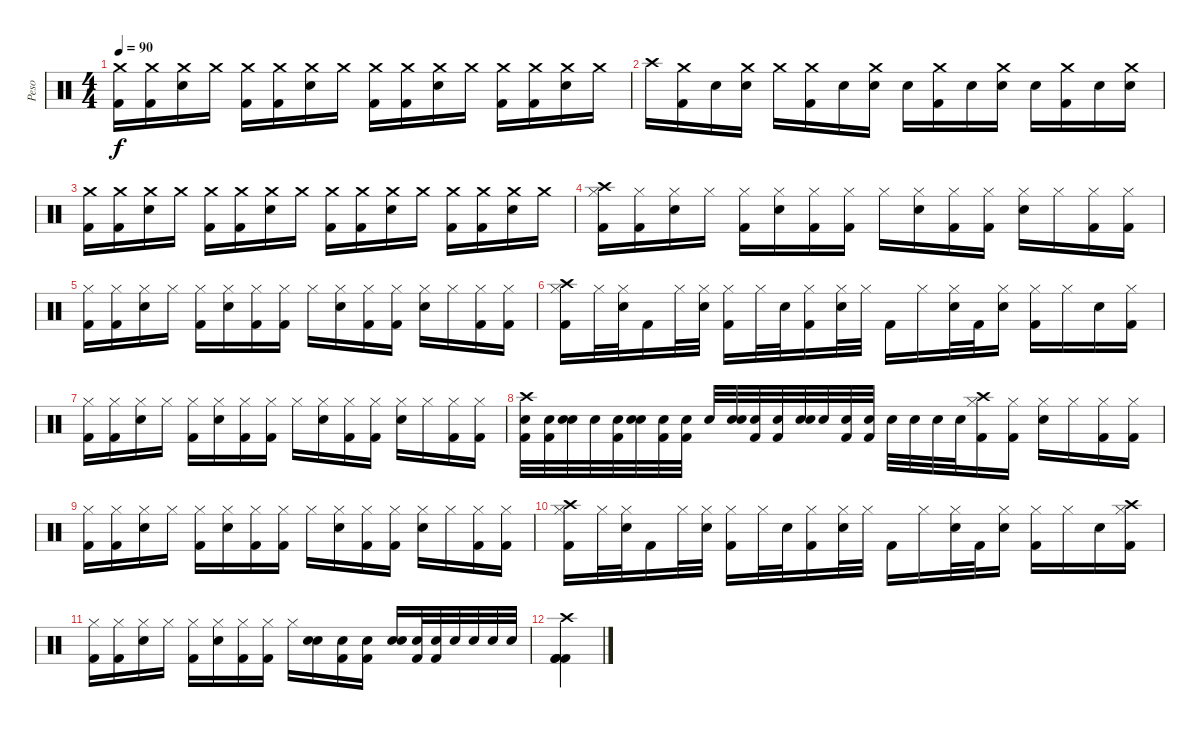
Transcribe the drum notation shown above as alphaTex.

\track ("Peso" "Peso") {instrument percussion}
\staff {score}
\articulation defaults
\ts (4 4)
\tempo 90
\clef neutral
\ks c
("Crash medium (hit)" "Kick (hit) 2").16{dy f} ("Crash medium (hit)" "Kick (hit) 2").16 ("Crash medium (hit)" "Snare (hit) 2").16 "Crash medium (hit)".16 ("Crash medium (hit)" "Kick (hit) 2").16 ("Crash medium (hit)" "Kick (hit) 2").16 ("Crash medium (hit)" "Snare (hit) 2").16 "Crash medium (hit)".16 ("Crash medium (hit)" "Kick (hit) 2").16 ("Crash medium (hit)" "Kick (hit) 2").16 ("Crash medium (hit)" "Snare (hit) 2").16 "Crash medium (hit)".16 ("Crash medium (hit)" "Kick (hit) 2").16 ("Crash medium (hit)" "Kick (hit) 2").16 ("Crash medium (hit)" "Snare (hit) 2").16 "Crash medium (hit)".16 |
"Crash high (hit)".16 ("Crash medium (hit)" "Kick (hit) 2").16 "Snare (hit)"{x}.16 ("Crash medium (hit)" "Snare (hit) 2").16 "Crash medium (hit)"{x}.16 ("Crash medium (hit)" "Kick (hit) 2").16 "Snare (hit)"{x}.16 ("Crash medium (hit)" "Snare (hit) 2").16 "Snare (hit)"{x}.16 ("Crash medium (hit)" "Kick (hit) 2").16 "Snare (hit)"{x}.16 ("Crash medium (hit)" "Snare (hit) 2").16 "Snare (hit)"{x}.16 ("Crash medium (hit)" "Kick (hit) 2").16 "Snare (hit)"{x}.16 ("Crash medium (hit)" "Snare (hit) 2").16 |
("Crash medium (hit)" "Kick (hit) 2").16 ("Crash medium (hit)" "Kick (hit) 2").16 ("Crash medium (hit)" "Snare (hit) 2").16 "Crash medium (hit)".16 ("Crash medium (hit)" "Kick (hit) 2").16 ("Crash medium (hit)" "Kick (hit) 2").16 ("Crash medium (hit)" "Snare (hit) 2").16 "Crash medium (hit)".16 ("Crash medium (hit)" "Kick (hit) 2").16 ("Crash medium (hit)" "Kick (hit) 2").16 ("Crash medium (hit)" "Snare (hit) 2").16 "Crash medium (hit)".16 ("Crash medium (hit)" "Kick (hit) 2").16 ("Crash medium (hit)" "Kick (hit) 2").16 ("Crash medium (hit)" "Snare (hit) 2").16 "Crash medium (hit)".16 |
("Crash high (hit)" "Hi-Hat (closed)" "Kick (hit) 2").16 ("Hi-Hat (closed)" "Kick (hit) 2").16 ("Hi-Hat (closed)" "Snare (hit) 2").16 "Hi-Hat (closed)".16 ("Hi-Hat (closed)" "Kick (hit) 2").16 ("Hi-Hat (closed)" "Snare (hit) 2").16 ("Hi-Hat (closed)" "Kick (hit) 2").16 ("Hi-Hat (closed)" "Kick (hit) 2").16 "Hi-Hat (closed)".16 ("Hi-Hat (closed)" "Snare (hit) 2").16 ("Hi-Hat (closed)" "Kick (hit) 2").16 ("Hi-Hat (closed)" "Kick (hit) 2").16 ("Hi-Hat (closed)" "Snare (hit) 2").16 "Hi-Hat (closed)".16 ("Hi-Hat (closed)" "Kick (hit) 2").16 ("Hi-Hat (closed)" "Kick (hit) 2").16 |
("Hi-Hat (closed)" "Kick (hit) 2").16 ("Hi-Hat (closed)" "Kick (hit) 2").16 ("Hi-Hat (closed)" "Snare (hit) 2").16 "Hi-Hat (closed)".16 ("Hi-Hat (closed)" "Kick (hit) 2").16 ("Hi-Hat (closed)" "Snare (hit) 2").16 ("Hi-Hat (closed)" "Kick (hit) 2").16 ("Hi-Hat (closed)" "Kick (hit) 2").16 "Hi-Hat (closed)".16 ("Hi-Hat (closed)" "Snare (hit) 2").16 ("Hi-Hat (closed)" "Kick (hit) 2").16 ("Hi-Hat (closed)" "Kick (hit) 2").16 ("Hi-Hat (closed)" "Snare (hit) 2").16 "Hi-Hat (closed)".16 ("Hi-Hat (closed)" "Kick (hit) 2").16 ("Hi-Hat (closed)" "Kick (hit) 2").16 |
("Crash high (hit)" "Hi-Hat (closed)" "Kick (hit) 2").16 "Hi-Hat (closed)".32 ("Hi-Hat (closed)" "Snare (hit) 2").32 "Kick (hit) 2".16 "Hi-Hat (closed)".32 ("Hi-Hat (closed)" "Snare (hit) 2").32 ("Hi-Hat (closed)" "Kick (hit) 2").16 "Hi-Hat (closed)".32 "Snare (hit) 2".32 ("Hi-Hat (closed)" "Kick (hit) 2").16 ("Hi-Hat (closed)" "Snare (hit) 2").32 "Hi-Hat (closed)".32 "Kick (hit) 2".16 "Hi-Hat (closed)".16 ("Hi-Hat (closed)" "Snare (hit) 2").32 "Kick (hit) 2".32 ("Hi-Hat (closed)" "Snare (hit) 2").16 ("Hi-Hat (closed)" "Kick (hit) 2").16 "Hi-Hat (closed)".16 "Snare (hit) 2".16 ("Hi-Hat (closed)" "Kick (hit) 2").16 |
("Hi-Hat (closed)" "Kick (hit) 2").16 ("Hi-Hat (closed)" "Kick (hit) 2").16 ("Hi-Hat (closed)" "Snare (hit) 2").16 "Hi-Hat (closed)".16 ("Hi-Hat (closed)" "Kick (hit) 2").16 ("Hi-Hat (closed)" "Snare (hit) 2").16 ("Hi-Hat (closed)" "Kick (hit) 2").16 ("Hi-Hat (closed)" "Kick (hit) 2").16 "Hi-Hat (closed)".16 ("Hi-Hat (closed)" "Snare (hit) 2").16 ("Hi-Hat (closed)" "Kick (hit) 2").16 ("Hi-Hat (closed)" "Kick (hit) 2").16 ("Hi-Hat (closed)" "Snare (hit) 2").16 "Hi-Hat (closed)".16 ("Hi-Hat (closed)" "Kick (hit) 2").16 ("Hi-Hat (closed)" "Kick (hit) 2").16 |
("Crash high (hit)" "Snare (hit) 2" "Kick (hit) 2").32 ("Snare (hit) 2" "Kick (hit) 2").32 ("Snare (hit) 2" "Snare (hit) 2").32 "Snare (hit) 2".32 ("Snare (hit) 2" "Kick (hit) 2").32 ("Snare (hit) 2" "Snare (hit) 2").32 ("Snare (hit) 2" "Kick (hit) 2").32 ("Snare (hit) 2" "Kick (hit) 2").32 "Snare (hit) 2".32 ("Snare (hit) 2" "Snare (hit) 2").32 ("Snare (hit) 2" "Kick (hit) 2").32 ("Snare (hit) 2" "Kick (hit) 2").32 ("Snare (hit) 2" "Snare (hit) 2").32 "Snare (hit) 2".32 ("Snare (hit) 2" "Kick (hit) 2").32 ("Snare (hit) 2" "Kick (hit) 2").32 "Snare (hit) 2".32 "Snare (hit) 2".32 "Snare (hit) 2".32 "Snare (hit) 2".32 ("Crash high (hit)" "Hi-Hat (closed)" "Kick (hit) 2").16 ("Hi-Hat (closed)" "Kick (hit) 2").16 ("Hi-Hat (closed)" "Snare (hit) 2").16 "Hi-Hat (closed)".16 ("Hi-Hat (closed)" "Kick (hit) 2").16 ("Hi-Hat (closed)" "Kick (hit) 2").16 |
("Hi-Hat (closed)" "Kick (hit) 2").16 ("Hi-Hat (closed)" "Kick (hit) 2").16 ("Hi-Hat (closed)" "Snare (hit) 2").16 "Hi-Hat (closed)".16 ("Hi-Hat (closed)" "Kick (hit) 2").16 ("Hi-Hat (closed)" "Snare (hit) 2").16 ("Hi-Hat (closed)" "Kick (hit) 2").16 ("Hi-Hat (closed)" "Kick (hit) 2").16 "Hi-Hat (closed)".16 ("Hi-Hat (closed)" "Snare (hit) 2").16 ("Hi-Hat (closed)" "Kick (hit) 2").16 ("Hi-Hat (closed)" "Kick (hit) 2").16 ("Hi-Hat (closed)" "Snare (hit) 2").16 "Hi-Hat (closed)".16 ("Hi-Hat (closed)" "Kick (hit) 2").16 ("Hi-Hat (closed)" "Kick (hit) 2").16 |
("Crash high (hit)" "Hi-Hat (closed)" "Kick (hit) 2").16 "Hi-Hat (closed)".32 ("Hi-Hat (closed)" "Snare (hit) 2").32 "Kick (hit) 2".16 "Hi-Hat (closed)".32 ("Hi-Hat (closed)" "Snare (hit) 2").32 ("Hi-Hat (closed)" "Kick (hit) 2").16 "Hi-Hat (closed)".32 "Snare (hit) 2".32 ("Hi-Hat (closed)" "Kick (hit) 2").16 ("Hi-Hat (closed)" "Snare (hit) 2").32 "Hi-Hat (closed)".32 "Kick (hit) 2".16 "Hi-Hat (closed)".16 ("Hi-Hat (closed)" "Snare (hit) 2").32 "Kick (hit) 2".32 ("Hi-Hat (closed)" "Snare (hit) 2").16 ("Hi-Hat (closed)" "Kick (hit) 2").16 "Hi-Hat (closed)".16 "Snare (hit) 2".16 ("Crash high (hit)" "Hi-Hat (closed)" "Kick (hit) 2").16 |
("Hi-Hat (closed)" "Kick (hit) 2").16 ("Hi-Hat (closed)" "Kick (hit) 2").16 ("Hi-Hat (closed)" "Snare (hit) 2").16 "Hi-Hat (closed)".16 ("Hi-Hat (closed)" "Kick (hit) 2").16 ("Hi-Hat (closed)" "Snare (hit) 2").16 ("Hi-Hat (closed)" "Kick (hit) 2").16 ("Hi-Hat (closed)" "Kick (hit) 2").16 "Hi-Hat (closed)".16 ("Snare (hit) 2" "Snare (hit) 2").16 ("Snare (hit) 2" "Kick (hit) 2").16 ("Snare (hit) 2" "Kick (hit) 2").16 ("Snare (hit) 2" "Snare (hit) 2").16 ("Snare (hit) 2" "Kick (hit) 2").32 ("Snare (hit) 2" "Kick (hit) 2").32 "Snare (hit) 2".32 "Snare (hit) 2".32 "Snare (hit) 2".32 "Snare (hit) 2".32 |
("Crash high (hit)" "Kick (hit) 2" "Kick (hit) 2" "Kick (hit) 2").4
